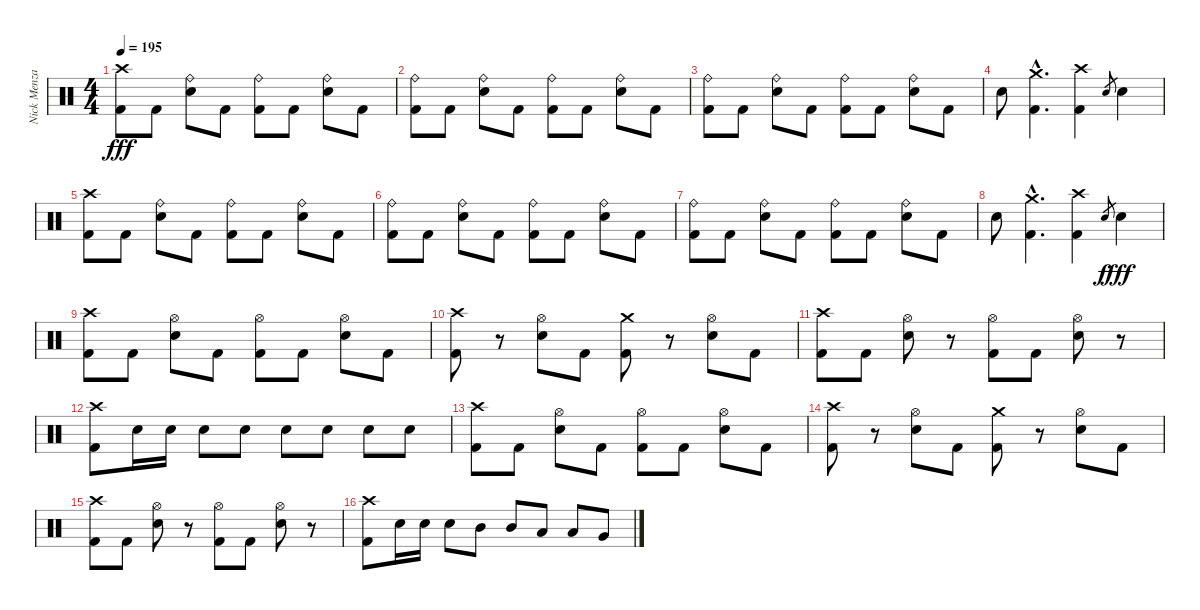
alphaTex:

\track ("Nick Menza" "Nick Menza") {instrument percussion}
\staff {score}
\articulation defaults
\ts (4 4)
\tempo 195
\clef neutral
\ks c
("Kick (hit) 2" "Crash high (hit)").8{dy fff} "Kick (hit) 2".8 ("Electric Snare (hit)" "Ride (bell)").8 "Kick (hit) 2".8 ("Kick (hit) 2" "Ride (bell)").8 "Kick (hit) 2".8 ("Electric Snare (hit)" "Ride (bell)").8 "Kick (hit) 2".8 |
("Kick (hit) 2" "Ride (bell)").8 "Kick (hit) 2".8 ("Electric Snare (hit)" "Ride (bell)").8 "Kick (hit) 2".8 ("Kick (hit) 2" "Ride (bell)").8 "Kick (hit) 2".8 ("Electric Snare (hit)" "Ride (bell)").8 "Kick (hit) 2".8 |
("Kick (hit) 2" "Ride (bell)").8 "Kick (hit) 2".8 ("Electric Snare (hit)" "Ride (bell)").8 "Kick (hit) 2".8 ("Kick (hit) 2" "Ride (bell)").8 "Kick (hit) 2".8 ("Electric Snare (hit)" "Ride (bell)").8 "Kick (hit) 2".8 |
"Electric Snare (hit)".8 ("Kick (hit) 2"{hac} "Crash medium (hit)"{hac}).4{d} ("Kick (hit) 2" "Crash high (hit)").4 "Electric Snare (hit)".8{gr} "Electric Snare (hit)".4 |
("Kick (hit) 2" "Crash high (hit)").8 "Kick (hit) 2".8 ("Electric Snare (hit)" "Ride (bell)").8 "Kick (hit) 2".8 ("Kick (hit) 2" "Ride (bell)").8 "Kick (hit) 2".8 ("Electric Snare (hit)" "Ride (bell)").8 "Kick (hit) 2".8 |
("Kick (hit) 2" "Ride (bell)").8 "Kick (hit) 2".8 ("Electric Snare (hit)" "Ride (bell)").8 "Kick (hit) 2".8 ("Kick (hit) 2" "Ride (bell)").8 "Kick (hit) 2".8 ("Electric Snare (hit)" "Ride (bell)").8 "Kick (hit) 2".8 |
("Kick (hit) 2" "Ride (bell)").8 "Kick (hit) 2".8 ("Electric Snare (hit)" "Ride (bell)").8 "Kick (hit) 2".8 ("Kick (hit) 2" "Ride (bell)").8 "Kick (hit) 2".8 ("Electric Snare (hit)" "Ride (bell)").8 "Kick (hit) 2".8 |
"Electric Snare (hit)".8 ("Kick (hit) 2"{hac} "Crash medium (hit)"{hac}).4{d} ("Kick (hit) 2" "Crash high (hit)").4 "Electric Snare (hit)".8{gr dy f} "Electric Snare (hit)".4{dy fff} |
("Kick (hit) 2" "Crash high (hit)").8 "Kick (hit) 2".8 ("Electric Snare (hit)" "Hi-Hat (open)").8 "Kick (hit) 2".8 ("Kick (hit) 2" "Hi-Hat (open)").8 "Kick (hit) 2".8 ("Electric Snare (hit)" "Hi-Hat (open)").8 "Kick (hit) 2".8 |
("Kick (hit) 2" "Crash high (hit)").8 r.8 ("Electric Snare (hit)" "Hi-Hat (open)").8 "Kick (hit) 2".8 ("Kick (hit) 2" "Crash medium (hit)").8 r.8 ("Electric Snare (hit)" "Hi-Hat (open)").8 "Kick (hit) 2".8 |
("Kick (hit) 2" "Crash high (hit)").8 "Kick (hit) 2".8 ("Electric Snare (hit)" "Hi-Hat (open)").8 r.8 ("Kick (hit) 2" "Hi-Hat (open)").8 "Kick (hit) 2".8 ("Electric Snare (hit)" "Hi-Hat (open)").8 r.8 |
("Kick (hit) 2" "Crash high (hit)").8 "Electric Snare (hit)".16 "Electric Snare (hit)".16 "Electric Snare (hit)".8 "Electric Snare (hit)".8 "Electric Snare (hit)".8 "Electric Snare (hit)".8 "Electric Snare (hit)".8 "Electric Snare (hit)".8 |
("Kick (hit) 2" "Crash high (hit)").8 "Kick (hit) 2".8 ("Electric Snare (hit)" "Hi-Hat (open)").8 "Kick (hit) 2".8 ("Kick (hit) 2" "Hi-Hat (open)").8 "Kick (hit) 2".8 ("Electric Snare (hit)" "Hi-Hat (open)").8 "Kick (hit) 2".8 |
("Kick (hit) 2" "Crash high (hit)").8 r.8 ("Electric Snare (hit)" "Hi-Hat (open)").8 "Kick (hit) 2".8 ("Kick (hit) 2" "Crash medium (hit)").8 r.8 ("Electric Snare (hit)" "Hi-Hat (open)").8 "Kick (hit) 2".8 |
("Kick (hit) 2" "Crash high (hit)").8 "Kick (hit) 2".8 ("Electric Snare (hit)" "Hi-Hat (open)").8 r.8 ("Kick (hit) 2" "Hi-Hat (open)").8 "Kick (hit) 2".8 ("Electric Snare (hit)" "Hi-Hat (open)").8 r.8 |
("Kick (hit) 2" "Crash high (hit)").8 "Electric Snare (hit)".16 "Electric Snare (hit)".16 "Electric Snare (hit)".8 "Mid Tom (hit)".8 "Mid Tom (hit)".8 "Low Tom (hit)".8 "Low Tom (hit)".8 "Very Low Tom (hit)".8
